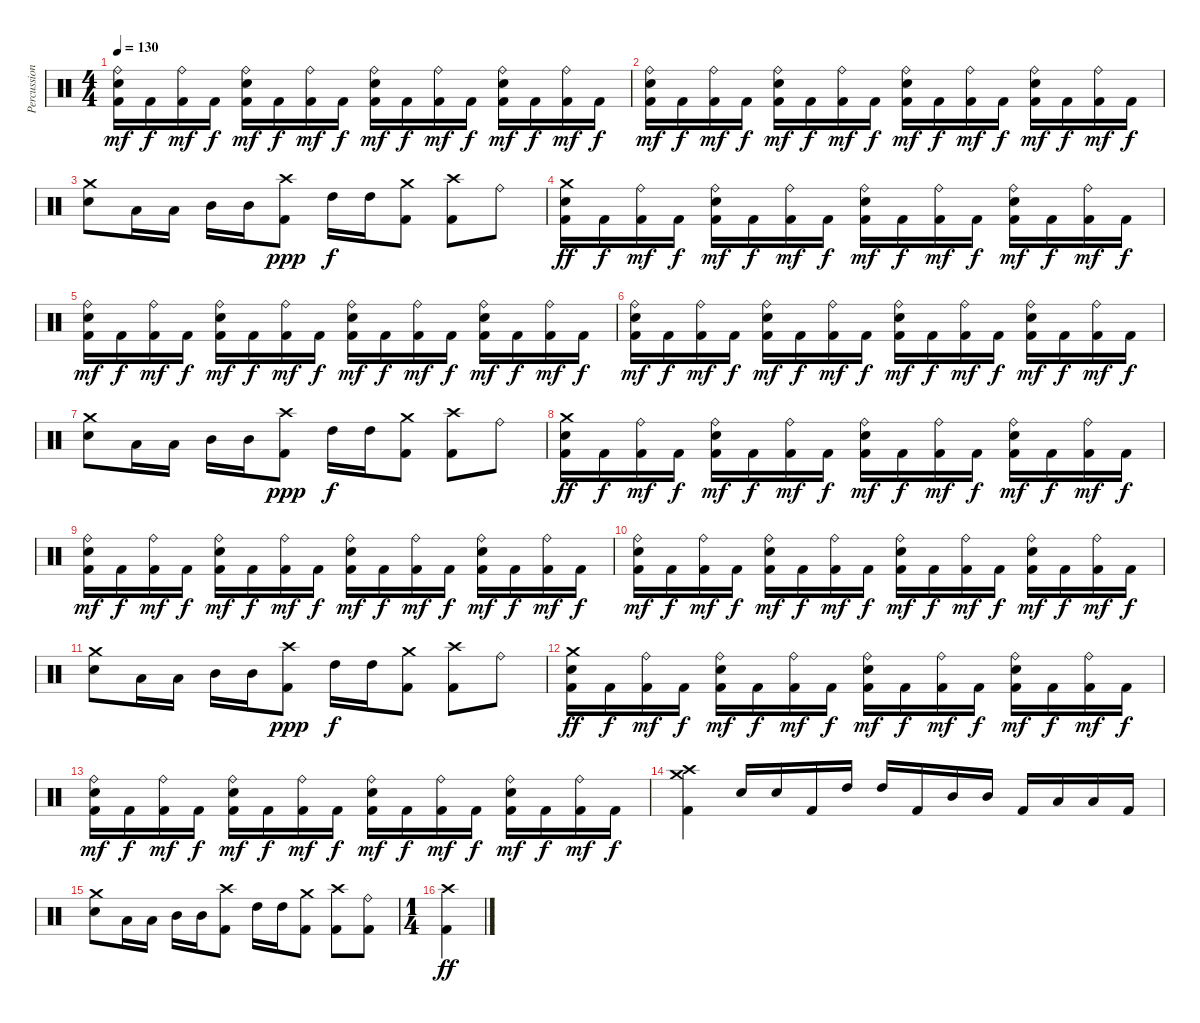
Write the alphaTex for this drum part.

\track ("Percussion" "Percussion") {instrument percussion}
\staff {score}
\articulation defaults
\ts (4 4)
\tempo 130
\clef neutral
\ks c
("Ride (bell)" "Electric Snare (hit)" "Kick (hit) 2").16{dy mf} "Kick (hit) 2".16{dy f} ("Ride (bell)" "Kick (hit) 2").16{dy mf} "Kick (hit) 2".16{dy f} ("Ride (bell)" "Electric Snare (hit)" "Kick (hit) 2").16{dy mf} "Kick (hit) 2".16{dy f} ("Ride (bell)" "Kick (hit) 2").16{dy mf} "Kick (hit) 2".16{dy f} ("Ride (bell)" "Electric Snare (hit)" "Kick (hit) 2").16{dy mf} "Kick (hit) 2".16{dy f} ("Ride (bell)" "Kick (hit) 2").16{dy mf} "Kick (hit) 2".16{dy f} ("Ride (bell)" "Electric Snare (hit)" "Kick (hit) 2").16{dy mf} "Kick (hit) 2".16{dy f} ("Ride (bell)" "Kick (hit) 2").16{dy mf} "Kick (hit) 2".16{dy f} |
("Ride (bell)" "Electric Snare (hit)" "Kick (hit) 2").16{dy mf} "Kick (hit) 2".16{dy f} ("Ride (bell)" "Kick (hit) 2").16{dy mf} "Kick (hit) 2".16{dy f} ("Ride (bell)" "Electric Snare (hit)" "Kick (hit) 2").16{dy mf} "Kick (hit) 2".16{dy f} ("Ride (bell)" "Kick (hit) 2").16{dy mf} "Kick (hit) 2".16{dy f} ("Ride (bell)" "Electric Snare (hit)" "Kick (hit) 2").16{dy mf} "Kick (hit) 2".16{dy f} ("Ride (bell)" "Kick (hit) 2").16{dy mf} "Kick (hit) 2".16{dy f} ("Ride (bell)" "Electric Snare (hit)" "Kick (hit) 2").16{dy mf} "Kick (hit) 2".16{dy f} ("Ride (bell)" "Kick (hit) 2").16{dy mf} "Kick (hit) 2".16{dy f} |
("Crash medium (hit)" "Electric Snare (hit)").8 "Low Tom (hit)".16 "Low Tom (hit)".16 "Mid Tom (hit)".16 "Mid Tom (hit)".16 ("Crash high (hit)" "Kick (hit) 2").8{dy ppp} "High Tom (hit)".16{dy f} "High Tom (hit)".16 ("Crash medium (hit)" "Kick (hit) 2").8 ("Crash high (hit)" "Kick (hit) 2").8 "Ride (bell)".8 |
("Crash medium (hit)" "Electric Snare (hit)" "Kick (hit) 2").16{dy ff} "Kick (hit) 2".16{dy f} ("Ride (bell)" "Kick (hit) 2").16{dy mf} "Kick (hit) 2".16{dy f} ("Ride (bell)" "Electric Snare (hit)" "Kick (hit) 2").16{dy mf} "Kick (hit) 2".16{dy f} ("Ride (bell)" "Kick (hit) 2").16{dy mf} "Kick (hit) 2".16{dy f} ("Ride (bell)" "Electric Snare (hit)" "Kick (hit) 2").16{dy mf} "Kick (hit) 2".16{dy f} ("Ride (bell)" "Kick (hit) 2").16{dy mf} "Kick (hit) 2".16{dy f} ("Ride (bell)" "Electric Snare (hit)" "Kick (hit) 2").16{dy mf} "Kick (hit) 2".16{dy f} ("Ride (bell)" "Kick (hit) 2").16{dy mf} "Kick (hit) 2".16{dy f} |
("Ride (bell)" "Electric Snare (hit)" "Kick (hit) 2").16{dy mf} "Kick (hit) 2".16{dy f} ("Ride (bell)" "Kick (hit) 2").16{dy mf} "Kick (hit) 2".16{dy f} ("Ride (bell)" "Electric Snare (hit)" "Kick (hit) 2").16{dy mf} "Kick (hit) 2".16{dy f} ("Ride (bell)" "Kick (hit) 2").16{dy mf} "Kick (hit) 2".16{dy f} ("Ride (bell)" "Electric Snare (hit)" "Kick (hit) 2").16{dy mf} "Kick (hit) 2".16{dy f} ("Ride (bell)" "Kick (hit) 2").16{dy mf} "Kick (hit) 2".16{dy f} ("Ride (bell)" "Electric Snare (hit)" "Kick (hit) 2").16{dy mf} "Kick (hit) 2".16{dy f} ("Ride (bell)" "Kick (hit) 2").16{dy mf} "Kick (hit) 2".16{dy f} |
("Ride (bell)" "Electric Snare (hit)" "Kick (hit) 2").16{dy mf} "Kick (hit) 2".16{dy f} ("Ride (bell)" "Kick (hit) 2").16{dy mf} "Kick (hit) 2".16{dy f} ("Ride (bell)" "Electric Snare (hit)" "Kick (hit) 2").16{dy mf} "Kick (hit) 2".16{dy f} ("Ride (bell)" "Kick (hit) 2").16{dy mf} "Kick (hit) 2".16{dy f} ("Ride (bell)" "Electric Snare (hit)" "Kick (hit) 2").16{dy mf} "Kick (hit) 2".16{dy f} ("Ride (bell)" "Kick (hit) 2").16{dy mf} "Kick (hit) 2".16{dy f} ("Ride (bell)" "Electric Snare (hit)" "Kick (hit) 2").16{dy mf} "Kick (hit) 2".16{dy f} ("Ride (bell)" "Kick (hit) 2").16{dy mf} "Kick (hit) 2".16{dy f} |
("Crash medium (hit)" "Electric Snare (hit)").8 "Low Tom (hit)".16 "Low Tom (hit)".16 "Mid Tom (hit)".16 "Mid Tom (hit)".16 ("Crash high (hit)" "Kick (hit) 2").8{dy ppp} "High Tom (hit)".16{dy f} "High Tom (hit)".16 ("Crash medium (hit)" "Kick (hit) 2").8 ("Crash high (hit)" "Kick (hit) 2").8 "Ride (bell)".8 |
("Crash medium (hit)" "Electric Snare (hit)" "Kick (hit) 2").16{dy ff} "Kick (hit) 2".16{dy f} ("Ride (bell)" "Kick (hit) 2").16{dy mf} "Kick (hit) 2".16{dy f} ("Ride (bell)" "Electric Snare (hit)" "Kick (hit) 2").16{dy mf} "Kick (hit) 2".16{dy f} ("Ride (bell)" "Kick (hit) 2").16{dy mf} "Kick (hit) 2".16{dy f} ("Ride (bell)" "Electric Snare (hit)" "Kick (hit) 2").16{dy mf} "Kick (hit) 2".16{dy f} ("Ride (bell)" "Kick (hit) 2").16{dy mf} "Kick (hit) 2".16{dy f} ("Ride (bell)" "Electric Snare (hit)" "Kick (hit) 2").16{dy mf} "Kick (hit) 2".16{dy f} ("Ride (bell)" "Kick (hit) 2").16{dy mf} "Kick (hit) 2".16{dy f} |
("Ride (bell)" "Electric Snare (hit)" "Kick (hit) 2").16{dy mf} "Kick (hit) 2".16{dy f} ("Ride (bell)" "Kick (hit) 2").16{dy mf} "Kick (hit) 2".16{dy f} ("Ride (bell)" "Electric Snare (hit)" "Kick (hit) 2").16{dy mf} "Kick (hit) 2".16{dy f} ("Ride (bell)" "Kick (hit) 2").16{dy mf} "Kick (hit) 2".16{dy f} ("Ride (bell)" "Electric Snare (hit)" "Kick (hit) 2").16{dy mf} "Kick (hit) 2".16{dy f} ("Ride (bell)" "Kick (hit) 2").16{dy mf} "Kick (hit) 2".16{dy f} ("Ride (bell)" "Electric Snare (hit)" "Kick (hit) 2").16{dy mf} "Kick (hit) 2".16{dy f} ("Ride (bell)" "Kick (hit) 2").16{dy mf} "Kick (hit) 2".16{dy f} |
("Ride (bell)" "Electric Snare (hit)" "Kick (hit) 2").16{dy mf} "Kick (hit) 2".16{dy f} ("Ride (bell)" "Kick (hit) 2").16{dy mf} "Kick (hit) 2".16{dy f} ("Ride (bell)" "Electric Snare (hit)" "Kick (hit) 2").16{dy mf} "Kick (hit) 2".16{dy f} ("Ride (bell)" "Kick (hit) 2").16{dy mf} "Kick (hit) 2".16{dy f} ("Ride (bell)" "Electric Snare (hit)" "Kick (hit) 2").16{dy mf} "Kick (hit) 2".16{dy f} ("Ride (bell)" "Kick (hit) 2").16{dy mf} "Kick (hit) 2".16{dy f} ("Ride (bell)" "Electric Snare (hit)" "Kick (hit) 2").16{dy mf} "Kick (hit) 2".16{dy f} ("Ride (bell)" "Kick (hit) 2").16{dy mf} "Kick (hit) 2".16{dy f} |
("Crash medium (hit)" "Electric Snare (hit)").8 "Low Tom (hit)".16 "Low Tom (hit)".16 "Mid Tom (hit)".16 "Mid Tom (hit)".16 ("Crash high (hit)" "Kick (hit) 2").8{dy ppp} "High Tom (hit)".16{dy f} "High Tom (hit)".16 ("Crash medium (hit)" "Kick (hit) 2").8 ("Crash high (hit)" "Kick (hit) 2").8 "Ride (bell)".8 |
("Crash medium (hit)" "Electric Snare (hit)" "Kick (hit) 2").16{dy ff} "Kick (hit) 2".16{dy f} ("Ride (bell)" "Kick (hit) 2").16{dy mf} "Kick (hit) 2".16{dy f} ("Ride (bell)" "Electric Snare (hit)" "Kick (hit) 2").16{dy mf} "Kick (hit) 2".16{dy f} ("Ride (bell)" "Kick (hit) 2").16{dy mf} "Kick (hit) 2".16{dy f} ("Ride (bell)" "Electric Snare (hit)" "Kick (hit) 2").16{dy mf} "Kick (hit) 2".16{dy f} ("Ride (bell)" "Kick (hit) 2").16{dy mf} "Kick (hit) 2".16{dy f} ("Ride (bell)" "Electric Snare (hit)" "Kick (hit) 2").16{dy mf} "Kick (hit) 2".16{dy f} ("Ride (bell)" "Kick (hit) 2").16{dy mf} "Kick (hit) 2".16{dy f} |
("Ride (bell)" "Electric Snare (hit)" "Kick (hit) 2").16{dy mf} "Kick (hit) 2".16{dy f} ("Ride (bell)" "Kick (hit) 2").16{dy mf} "Kick (hit) 2".16{dy f} ("Ride (bell)" "Electric Snare (hit)" "Kick (hit) 2").16{dy mf} "Kick (hit) 2".16{dy f} ("Ride (bell)" "Kick (hit) 2").16{dy mf} "Kick (hit) 2".16{dy f} ("Ride (bell)" "Electric Snare (hit)" "Kick (hit) 2").16{dy mf} "Kick (hit) 2".16{dy f} ("Ride (bell)" "Kick (hit) 2").16{dy mf} "Kick (hit) 2".16{dy f} ("Ride (bell)" "Electric Snare (hit)" "Kick (hit) 2").16{dy mf} "Kick (hit) 2".16{dy f} ("Ride (bell)" "Kick (hit) 2").16{dy mf} "Kick (hit) 2".16{dy f} |
("Crash high (hit)" "Crash medium (hit)" "Kick (hit) 2").4 "Electric Snare (hit)".16 "Electric Snare (hit)".16 "Kick (hit) 2".16 "High Tom (hit)".16 "High Tom (hit)".16 "Kick (hit) 2".16 "Mid Tom (hit)".16 "Mid Tom (hit)".16 "Kick (hit) 2".16 "Low Tom (hit)".16 "Low Tom (hit)".16 "Kick (hit) 2".16 |
("Electric Snare (hit)" "Crash medium (hit)").8 "Low Tom (hit)".16 "Low Tom (hit)".16 "Mid Tom (hit)".16 "Mid Tom (hit)".16 ("Crash high (hit)" "Kick (hit) 2").8 "High Tom (hit)".16 "High Tom (hit)".16 ("Crash medium (hit)" "Kick (hit) 2").8 ("Crash high (hit)" "Kick (hit) 2").8 ("Ride (bell)" "Kick (hit) 2").8 |
\ts (1 4)
("Crash high (hit)" "Kick (hit) 2").4{dy ff}
